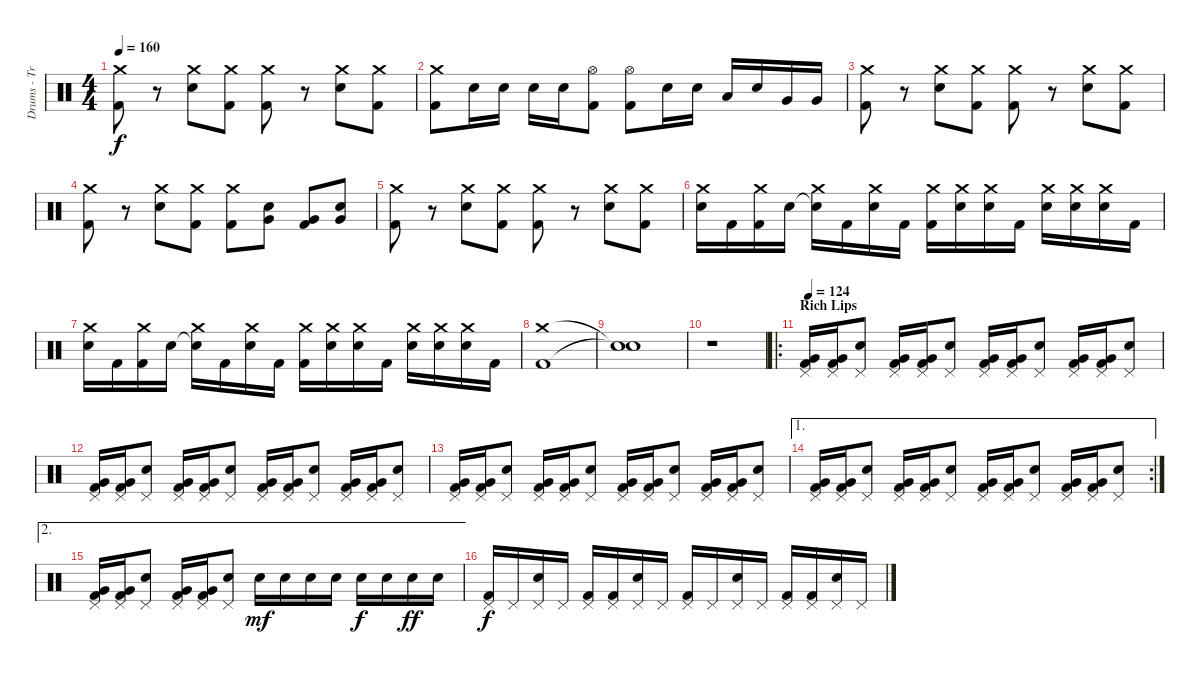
\track ("Drums - Travis Barker" "Drums - Tr") {instrument percussion}
\staff {score}
\articulation defaults
\ts (4 4)
\tempo 160
\clef neutral
\ks c
("Kick (hit) 2" "Crash medium (hit)").8{dy f} r.8 ("Snare (hit) 2" "Crash medium (hit)").8 ("Kick (hit) 2" "Crash medium (hit)").8 ("Kick (hit) 2" "Crash medium (hit)").8 r.8 ("Snare (hit) 2" "Crash medium (hit)").8 ("Kick (hit) 2" "Crash medium (hit)").8 |
("Kick (hit) 2" "Crash medium (hit)").8 "Snare (hit) 2".16 "Snare (hit) 2".16 "Snare (hit) 2".16 "Snare (hit) 2".16 ("Hi-Hat (open)" "Kick (hit) 2").8 ("Hi-Hat (open)" "Kick (hit) 2").8 "Snare (hit) 2".16 "Snare (hit) 2".16 "Low Tom (hit)".16 "Snare (hit) 2".16 "Very Low Tom (hit)".16 "Very Low Tom (hit)".16 |
("Kick (hit) 2" "Crash medium (hit)").8 r.8 ("Snare (hit) 2" "Crash medium (hit)").8 ("Kick (hit) 2" "Crash medium (hit)").8 ("Kick (hit) 2" "Crash medium (hit)").8 r.8 ("Snare (hit) 2" "Crash medium (hit)").8 ("Kick (hit) 2" "Crash medium (hit)").8 |
("Kick (hit) 2" "Crash medium (hit)").8 r.8 ("Snare (hit) 2" "Crash medium (hit)").8 ("Kick (hit) 2" "Crash medium (hit)").8 ("Kick (hit) 2" "Crash medium (hit)").8 ("Snare (hit) 2" "Very Low Tom (hit)").8 ("Kick (hit) 2" "Very Low Tom (hit)").8 ("Snare (hit) 2" "Very Low Tom (hit)").8 |
("Kick (hit) 2" "Crash medium (hit)").8 r.8 ("Snare (hit) 2" "Crash medium (hit)").8 ("Kick (hit) 2" "Crash medium (hit)").8 ("Kick (hit) 2" "Crash medium (hit)").8 r.8 ("Snare (hit) 2" "Crash medium (hit)").8 ("Kick (hit) 2" "Crash medium (hit)").8 |
("Snare (hit) 2" "Crash medium (hit)").16 "Kick (hit) 2".16 ("Kick (hit) 2" "Crash medium (hit)").16 "Snare (hit) 2".16 ("Snare (hit)"{t} "Crash medium (hit)").16 "Kick (hit) 2".16 ("Snare (hit) 2" "Crash medium (hit)").16 "Kick (hit) 2".16 ("Kick (hit) 2" "Crash medium (hit)").16 ("Snare (hit) 2" "Crash medium (hit)").16 ("Snare (hit) 2" "Crash medium (hit)").16 "Kick (hit) 2".16 ("Snare (hit) 2" "Crash medium (hit)").16 ("Snare (hit) 2" "Crash medium (hit)").16 ("Snare (hit) 2" "Crash medium (hit)").16 "Kick (hit) 2".16 |
("Snare (hit) 2" "Crash medium (hit)").16 "Kick (hit) 2".16 ("Kick (hit) 2" "Crash medium (hit)").16 "Snare (hit) 2".16 ("Snare (hit)"{t} "Crash medium (hit)").16 "Kick (hit) 2".16 ("Snare (hit) 2" "Crash medium (hit)").16 "Kick (hit) 2".16 ("Kick (hit) 2" "Crash medium (hit)").16 ("Snare (hit) 2" "Crash medium (hit)").16 ("Snare (hit) 2" "Crash medium (hit)").16 "Kick (hit) 2".16 ("Snare (hit) 2" "Crash medium (hit)").16 ("Snare (hit) 2" "Crash medium (hit)").16 ("Snare (hit) 2" "Crash medium (hit)").16 "Kick (hit) 2".16 |
("Crash medium (hit)" "Kick (hit) 2").1 |
("Snare (hit)"{t} "Snare (hit)"{t}).1 |
r.1 |
\ro
\section ("" "Rich Lips")
\tempo 124
("Pedal Hi-Hat (hit)" "Very Low Tom (hit)" "Kick (hit) 2").16 ("Pedal Hi-Hat (hit)" "Very Low Tom (hit)" "Kick (hit) 2").16 ("Pedal Hi-Hat (hit)" "Electric Snare (hit)").8 ("Pedal Hi-Hat (hit)" "Very Low Tom (hit)" "Kick (hit) 2").16 ("Pedal Hi-Hat (hit)" "Very Low Tom (hit)" "Kick (hit) 2").16 ("Pedal Hi-Hat (hit)" "Electric Snare (hit)").8 ("Pedal Hi-Hat (hit)" "Very Low Tom (hit)" "Kick (hit) 2").16 ("Pedal Hi-Hat (hit)" "Very Low Tom (hit)" "Kick (hit) 2").16 ("Pedal Hi-Hat (hit)" "Electric Snare (hit)").8 ("Pedal Hi-Hat (hit)" "Very Low Tom (hit)" "Kick (hit) 2").16 ("Pedal Hi-Hat (hit)" "Very Low Tom (hit)" "Kick (hit) 2").16 ("Pedal Hi-Hat (hit)" "Electric Snare (hit)").8 |
("Pedal Hi-Hat (hit)" "Very Low Tom (hit)" "Kick (hit) 2").16 ("Pedal Hi-Hat (hit)" "Very Low Tom (hit)" "Kick (hit) 2").16 ("Pedal Hi-Hat (hit)" "Electric Snare (hit)").8 ("Pedal Hi-Hat (hit)" "Very Low Tom (hit)" "Kick (hit) 2").16 ("Pedal Hi-Hat (hit)" "Very Low Tom (hit)" "Kick (hit) 2").16 ("Pedal Hi-Hat (hit)" "Electric Snare (hit)").8 ("Pedal Hi-Hat (hit)" "Very Low Tom (hit)" "Kick (hit) 2").16 ("Pedal Hi-Hat (hit)" "Very Low Tom (hit)" "Kick (hit) 2").16 ("Pedal Hi-Hat (hit)" "Electric Snare (hit)").8 ("Pedal Hi-Hat (hit)" "Very Low Tom (hit)" "Kick (hit) 2").16 ("Pedal Hi-Hat (hit)" "Very Low Tom (hit)" "Kick (hit) 2").16 ("Pedal Hi-Hat (hit)" "Electric Snare (hit)").8 |
("Pedal Hi-Hat (hit)" "Very Low Tom (hit)" "Kick (hit) 2").16 ("Pedal Hi-Hat (hit)" "Very Low Tom (hit)" "Kick (hit) 2").16 ("Pedal Hi-Hat (hit)" "Electric Snare (hit)").8 ("Pedal Hi-Hat (hit)" "Very Low Tom (hit)" "Kick (hit) 2").16 ("Pedal Hi-Hat (hit)" "Very Low Tom (hit)" "Kick (hit) 2").16 ("Pedal Hi-Hat (hit)" "Electric Snare (hit)").8 ("Pedal Hi-Hat (hit)" "Very Low Tom (hit)" "Kick (hit) 2").16 ("Pedal Hi-Hat (hit)" "Very Low Tom (hit)" "Kick (hit) 2").16 ("Pedal Hi-Hat (hit)" "Electric Snare (hit)").8 ("Pedal Hi-Hat (hit)" "Very Low Tom (hit)" "Kick (hit) 2").16 ("Pedal Hi-Hat (hit)" "Very Low Tom (hit)" "Kick (hit) 2").16 ("Pedal Hi-Hat (hit)" "Electric Snare (hit)").8 |
\ae 1
\rc 2
("Pedal Hi-Hat (hit)" "Very Low Tom (hit)" "Kick (hit) 2").16 ("Pedal Hi-Hat (hit)" "Very Low Tom (hit)" "Kick (hit) 2").16 ("Pedal Hi-Hat (hit)" "Electric Snare (hit)").8 ("Pedal Hi-Hat (hit)" "Very Low Tom (hit)" "Kick (hit) 2").16 ("Pedal Hi-Hat (hit)" "Very Low Tom (hit)" "Kick (hit) 2").16 ("Pedal Hi-Hat (hit)" "Electric Snare (hit)").8 ("Pedal Hi-Hat (hit)" "Very Low Tom (hit)" "Kick (hit) 2").16 ("Pedal Hi-Hat (hit)" "Very Low Tom (hit)" "Kick (hit) 2").16 ("Pedal Hi-Hat (hit)" "Electric Snare (hit)").8 ("Pedal Hi-Hat (hit)" "Very Low Tom (hit)" "Kick (hit) 2").16 ("Pedal Hi-Hat (hit)" "Very Low Tom (hit)" "Kick (hit) 2").16 ("Pedal Hi-Hat (hit)" "Electric Snare (hit)").8 |
\ae 2
("Pedal Hi-Hat (hit)" "Very Low Tom (hit)" "Kick (hit) 2").16 ("Pedal Hi-Hat (hit)" "Very Low Tom (hit)" "Kick (hit) 2").16 ("Pedal Hi-Hat (hit)" "Electric Snare (hit)").8 ("Pedal Hi-Hat (hit)" "Very Low Tom (hit)" "Kick (hit) 2").16 ("Pedal Hi-Hat (hit)" "Very Low Tom (hit)" "Kick (hit) 2").16 ("Pedal Hi-Hat (hit)" "Electric Snare (hit)").8 "Electric Snare (hit)".16{dy mf} "Electric Snare (hit)".16 "Electric Snare (hit)".16 "Electric Snare (hit)".16 "Electric Snare (hit)".16{dy f} "Electric Snare (hit)".16 "Electric Snare (hit)".16{dy ff} "Electric Snare (hit)".16 |
("Pedal Hi-Hat (hit)" "Kick (hit) 2").16{dy f} "Pedal Hi-Hat (hit)".16 ("Pedal Hi-Hat (hit)" "Electric Snare (hit)").16 "Pedal Hi-Hat (hit)".16 ("Pedal Hi-Hat (hit)" "Kick (hit) 2").16 ("Pedal Hi-Hat (hit)" "Kick (hit) 2").16 ("Pedal Hi-Hat (hit)" "Electric Snare (hit)").16 "Pedal Hi-Hat (hit)".16 ("Pedal Hi-Hat (hit)" "Kick (hit) 2").16 "Pedal Hi-Hat (hit)".16 ("Pedal Hi-Hat (hit)" "Electric Snare (hit)").16 "Pedal Hi-Hat (hit)".16 ("Pedal Hi-Hat (hit)" "Kick (hit) 2").16 ("Pedal Hi-Hat (hit)" "Kick (hit) 2").16 ("Pedal Hi-Hat (hit)" "Electric Snare (hit)").16 "Pedal Hi-Hat (hit)".16
